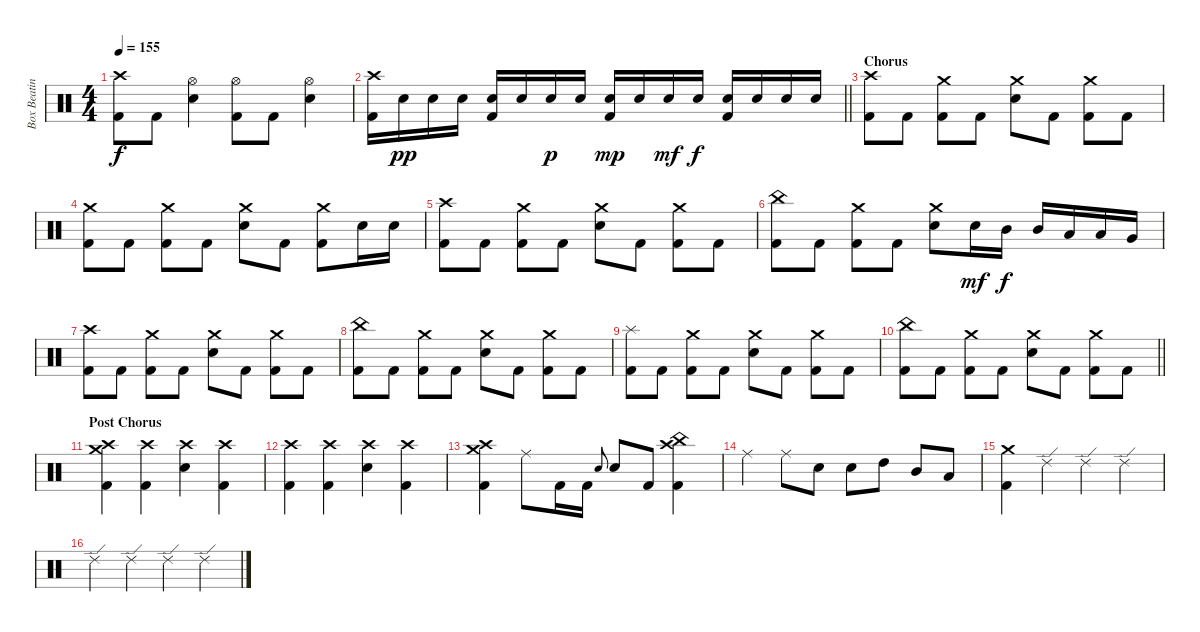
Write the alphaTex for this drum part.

\track ("Box Beating" "Box Beatin") {instrument percussion}
\staff {score}
\articulation defaults
\ts (4 4)
\tempo 155
\clef neutral
\ks c
("Crash high (hit)" "Kick (hit) 2").8{dy f} "Kick (hit) 2".8 ("Hi-Hat (open)" "Electric Snare (hit)").4 ("Hi-Hat (open)" "Kick (hit) 2").8 "Kick (hit) 2".8 ("Hi-Hat (open)" "Electric Snare (hit)").4 |
\barLineRight lightlight
("Crash high (hit)" "Kick (hit) 2").16 "Electric Snare (hit)".16{dy pp} "Electric Snare (hit)".16 "Electric Snare (hit)".16 ("Electric Snare (hit)" "Kick (hit) 2").16 "Electric Snare (hit)".16 "Electric Snare (hit)".16{dy p} "Electric Snare (hit)".16 ("Electric Snare (hit)" "Kick (hit) 2").16{dy mp} "Electric Snare (hit)".16 "Electric Snare (hit)".16{dy mf} "Electric Snare (hit)".16{dy f} ("Electric Snare (hit)" "Kick (hit) 2").16 "Electric Snare (hit)".16 "Electric Snare (hit)".16 "Electric Snare (hit)".16 |
\section ("" "Chorus")
("Crash high (hit)" "Kick (hit) 2").8 "Kick (hit) 2".8 ("Crash medium (hit)" "Kick (hit) 2").8 "Kick (hit) 2".8 ("Crash medium (hit)" "Electric Snare (hit)").8 "Kick (hit) 2".8 ("Crash medium (hit)" "Kick (hit) 2").8 "Kick (hit) 2".8 |
("Crash medium (hit)" "Kick (hit) 2").8 "Kick (hit) 2".8 ("Crash medium (hit)" "Kick (hit) 2").8 "Kick (hit) 2".8 ("Crash medium (hit)" "Electric Snare (hit)").8 "Kick (hit) 2".8 ("Crash medium (hit)" "Kick (hit) 2").8 "Electric Snare (hit)".16 "Electric Snare (hit)".16 |
("Crash high (hit)" "Kick (hit) 2").8 "Kick (hit) 2".8 ("Crash medium (hit)" "Kick (hit) 2").8 "Kick (hit) 2".8 ("Crash medium (hit)" "Electric Snare (hit)").8 "Kick (hit) 2".8 ("Crash medium (hit)" "Kick (hit) 2").8 "Kick (hit) 2".8 |
("China (hit)" "Kick (hit) 2").8 "Kick (hit) 2".8 ("Crash medium (hit)" "Kick (hit) 2").8 "Kick (hit) 2".8 ("Crash medium (hit)" "Electric Snare (hit)").8 "Electric Snare (hit)".16{dy mf} "Mid Tom (hit)".16{dy f} "Mid Tom (hit)".16 "Low Tom (hit)".16 "Low Tom (hit)".16 "Very Low Tom (hit)".16 |
("Crash high (hit)" "Kick (hit) 2").8 "Kick (hit) 2".8 ("Crash medium (hit)" "Kick (hit) 2").8 "Kick (hit) 2".8 ("Crash medium (hit)" "Electric Snare (hit)").8 "Kick (hit) 2".8 ("Crash medium (hit)" "Kick (hit) 2").8 "Kick (hit) 2".8 |
("China (hit)" "Kick (hit) 2").8 "Kick (hit) 2".8 ("Crash medium (hit)" "Kick (hit) 2").8 "Kick (hit) 2".8 ("Crash medium (hit)" "Electric Snare (hit)").8 "Kick (hit) 2".8 ("Crash medium (hit)" "Kick (hit) 2").8 "Kick (hit) 2".8 |
("Splash (hit)" "Kick (hit) 2").8 "Kick (hit) 2".8 ("Crash medium (hit)" "Kick (hit) 2").8 "Kick (hit) 2".8 ("Crash medium (hit)" "Electric Snare (hit)").8 "Kick (hit) 2".8 ("Crash medium (hit)" "Kick (hit) 2").8 "Kick (hit) 2".8 |
\barLineRight lightlight
("China (hit)" "Kick (hit) 2").8 "Kick (hit) 2".8 ("Crash medium (hit)" "Kick (hit) 2").8 "Kick (hit) 2".8 ("Crash medium (hit)" "Electric Snare (hit)").8 "Kick (hit) 2".8 ("Crash medium (hit)" "Kick (hit) 2").8 "Kick (hit) 2".8 |
\section ("" "Post Chorus")
("Crash high (hit)" "Crash medium (hit)" "Kick (hit) 2").4 ("Crash high (hit)" "Kick (hit) 2").4 ("Crash high (hit)" "Electric Snare (hit)").4 ("Crash high (hit)" "Kick (hit) 2").4 |
("Crash high (hit)" "Kick (hit) 2").4 ("Crash high (hit)" "Kick (hit) 2").4 ("Crash high (hit)" "Electric Snare (hit)").4 ("Crash high (hit)" "Kick (hit) 2").4 |
("Crash high (hit)" "Crash medium (hit)" "Kick (hit) 2").4 "Ride (middle)".8 "Kick (hit) 2".16 "Kick (hit) 2".16 "Electric Snare (hit)".8{gr onbeat} "Electric Snare (hit)".8 "Kick (hit) 2".8 ("Crash high (hit)" "China (hit)" "Kick (hit) 2").4 |
"Ride (middle)".4 "Ride (middle)".8 "Electric Snare (hit)".8 "Electric Snare (hit)".8 "High Tom (hit)".8 "Mid Tom (hit)".8 "Low Tom (hit)".8 |
("Crash medium (hit)" "Kick (hit) 2").4 "Ride (edge) 2".4 "Ride (edge) 2".4 "Ride (edge) 2".4 |
"Ride (edge) 2".4 "Ride (edge) 2".4 "Ride (edge) 2".4 "Ride (edge) 2".4
